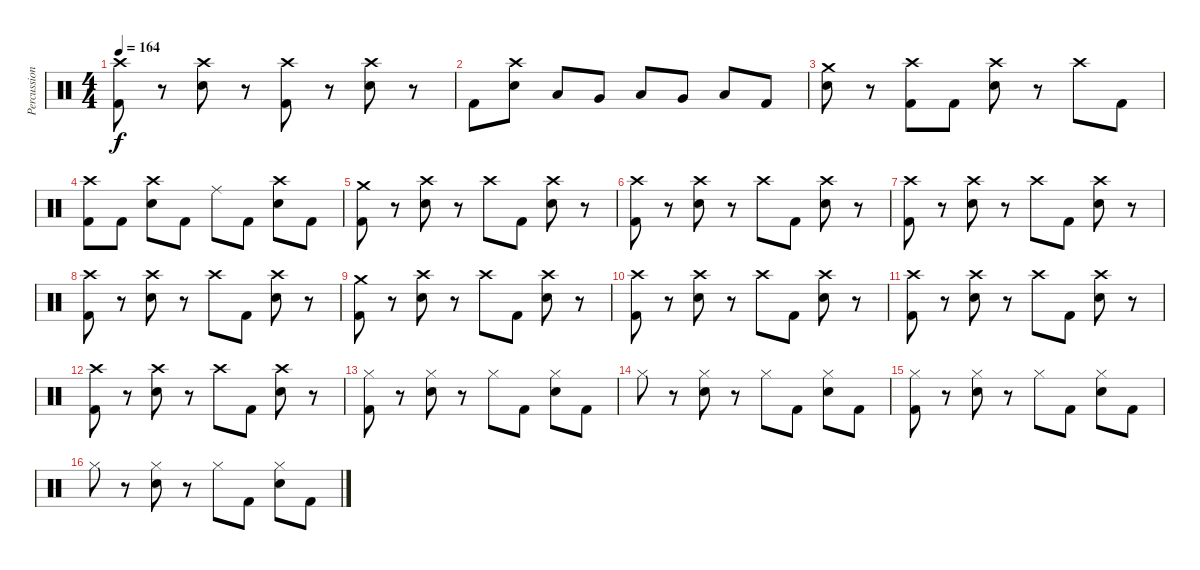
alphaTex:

\track ("Percussion" "Percussion") {instrument percussion}
\staff {score}
\articulation defaults
\ts (4 4)
\tempo 164
\clef neutral
\ks c
("Crash high (hit)" "Kick (hit) 2").8{dy f} r.8 ("Crash high (hit)" "Electric Snare (hit)").8 r.8 ("Crash high (hit)" "Kick (hit) 2").8 r.8 ("Crash high (hit)" "Electric Snare (hit)").8 r.8 |
"Kick (hit) 2".8 ("Crash high (hit)" "Electric Snare (hit)").8 "Low Tom (hit)".8 "Very Low Tom (hit)".8 "Low Floor Tom (hit)".8 "Very Low Tom (hit)".8 "Low Floor Tom (hit)".8 "Kick (hit) 2".8 |
("Crash medium (hit)" "Electric Snare (hit)").8 r.8 ("Crash high (hit)" "Kick (hit) 2").8 "Kick (hit) 2".8 ("Crash high (hit)" "Electric Snare (hit)").8 r.8 "Crash high (hit)".8 "Kick (hit) 2".8 |
("Crash high (hit)" "Kick (hit) 2").8 "Kick (hit) 2".8 ("Crash high (hit)" "Electric Snare (hit)").8 "Kick (hit) 2".8 "Ride (middle)".8 "Kick (hit) 2".8 ("Crash high (hit)" "Electric Snare (hit)").8 "Kick (hit) 2".8 |
("Crash medium (hit)" "Kick (hit) 2").8 r.8 ("Crash high (hit)" "Electric Snare (hit)").8 r.8 "Crash high (hit)".8 "Kick (hit) 2".8 ("Crash high (hit)" "Electric Snare (hit)").8 r.8 |
("Crash high (hit)" "Kick (hit) 2").8 r.8 ("Crash high (hit)" "Electric Snare (hit)").8 r.8 "Crash high (hit)".8 "Kick (hit) 2".8 ("Crash high (hit)" "Electric Snare (hit)").8 r.8 |
("Crash high (hit)" "Kick (hit) 2").8 r.8 ("Crash high (hit)" "Electric Snare (hit)").8 r.8 "Crash high (hit)".8 "Kick (hit) 2".8 ("Crash high (hit)" "Electric Snare (hit)").8 r.8 |
("Crash high (hit)" "Kick (hit) 2").8 r.8 ("Crash high (hit)" "Electric Snare (hit)").8 r.8 "Crash high (hit)".8 "Kick (hit) 2".8 ("Crash high (hit)" "Electric Snare (hit)").8 r.8 |
("Crash medium (hit)" "Kick (hit) 2").8 r.8 ("Crash high (hit)" "Electric Snare (hit)").8 r.8 "Crash high (hit)".8 "Kick (hit) 2".8 ("Crash high (hit)" "Electric Snare (hit)").8 r.8 |
("Crash high (hit)" "Kick (hit) 2").8 r.8 ("Crash high (hit)" "Electric Snare (hit)").8 r.8 "Crash high (hit)".8 "Kick (hit) 2".8 ("Crash high (hit)" "Electric Snare (hit)").8 r.8 |
("Crash high (hit)" "Kick (hit) 2").8 r.8 ("Crash high (hit)" "Electric Snare (hit)").8 r.8 "Crash high (hit)".8 "Kick (hit) 2".8 ("Crash high (hit)" "Electric Snare (hit)").8 r.8 |
("Crash high (hit)" "Kick (hit) 2").8 r.8 ("Crash high (hit)" "Electric Snare (hit)").8 r.8 "Crash high (hit)".8 "Kick (hit) 2".8 ("Crash high (hit)" "Electric Snare (hit)").8 r.8 |
("Hi-Hat (closed)" "Kick (hit) 2").8 r.8 ("Hi-Hat (closed)" "Electric Snare (hit)").8 r.8 "Hi-Hat (closed)".8 "Kick (hit) 2".8 ("Hi-Hat (closed)" "Electric Snare (hit)").8 "Kick (hit) 2".8 |
"Hi-Hat (closed)".8 r.8 ("Hi-Hat (closed)" "Electric Snare (hit)").8 r.8 "Hi-Hat (closed)".8 "Kick (hit) 2".8 ("Hi-Hat (closed)" "Electric Snare (hit)").8 "Kick (hit) 2".8 |
("Hi-Hat (closed)" "Kick (hit) 2").8 r.8 ("Hi-Hat (closed)" "Electric Snare (hit)").8 r.8 "Hi-Hat (closed)".8 "Kick (hit) 2".8 ("Hi-Hat (closed)" "Electric Snare (hit)").8 "Kick (hit) 2".8 |
"Hi-Hat (closed)".8 r.8 ("Hi-Hat (closed)" "Electric Snare (hit)").8 r.8 "Hi-Hat (closed)".8 "Kick (hit) 2".8 ("Hi-Hat (closed)" "Electric Snare (hit)").8 "Kick (hit) 2".8
